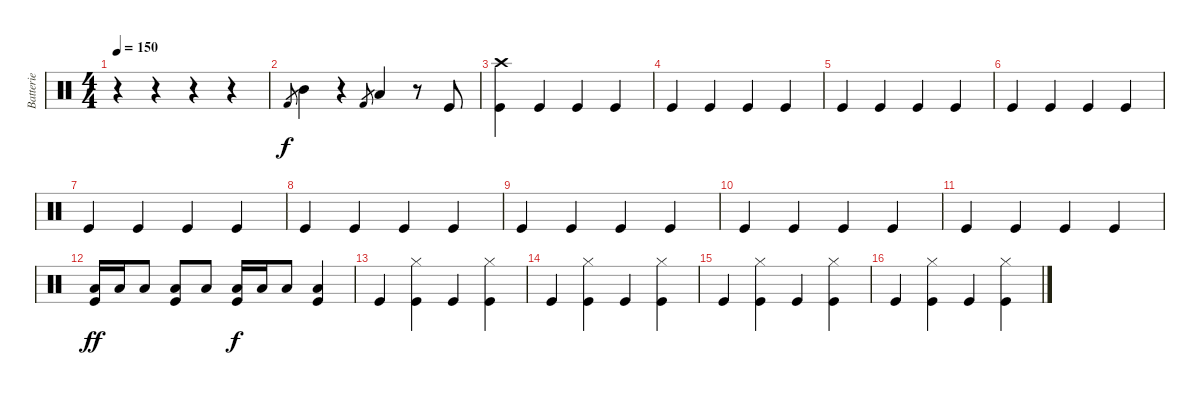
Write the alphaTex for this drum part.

\track ("Batterie" "Batterie") {instrument percussion}
\staff {score}
\articulation defaults
\ts (4 4)
\tempo 150
\clef neutral
\ks c
r.4{dy f} r.4 r.4 r.4 |
"Kick (hit) 2".8{gr} "Mid Tom (hit)".4 r.4 "Kick (hit) 2".8{gr} "Low Tom (hit)".4 r.8 "Kick (hit)".8 |
("Crash high (hit)" "Kick (hit)").4 "Kick (hit)".4 "Kick (hit)".4 "Kick (hit)".4 |
"Kick (hit)".4 "Kick (hit)".4 "Kick (hit)".4 "Kick (hit)".4 |
"Kick (hit)".4 "Kick (hit)".4 "Kick (hit)".4 "Kick (hit)".4 |
"Kick (hit)".4 "Kick (hit)".4 "Kick (hit)".4 "Kick (hit)".4 |
"Kick (hit)".4 "Kick (hit)".4 "Kick (hit)".4 "Kick (hit)".4 |
"Kick (hit)".4 "Kick (hit)".4 "Kick (hit)".4 "Kick (hit)".4 |
"Kick (hit)".4 "Kick (hit)".4 "Kick (hit)".4 "Kick (hit)".4 |
"Kick (hit)".4 "Kick (hit)".4 "Kick (hit)".4 "Kick (hit)".4 |
"Kick (hit)".4 "Kick (hit)".4 "Kick (hit)".4 "Kick (hit)".4 |
("Low Tom (hit)" "Kick (hit)").16{dy ff} "Low Tom (hit)".16 "Low Tom (hit)".8 ("Low Tom (hit)" "Kick (hit)").8 "Low Tom (hit)".8 ("Low Tom (hit)" "Kick (hit)").16{dy f} "Low Tom (hit)".16 "Low Tom (hit)".8 ("Low Tom (hit)" "Kick (hit)").4 |
"Kick (hit)".4 ("Hi-Hat (closed)" "Kick (hit)").4 "Kick (hit)".4 ("Hi-Hat (closed)" "Kick (hit)").4 |
"Kick (hit)".4 ("Hi-Hat (closed)" "Kick (hit)").4 "Kick (hit)".4 ("Hi-Hat (closed)" "Kick (hit)").4 |
"Kick (hit)".4 ("Hi-Hat (closed)" "Kick (hit)").4 "Kick (hit)".4 ("Hi-Hat (closed)" "Kick (hit)").4 |
"Kick (hit)".4 ("Hi-Hat (closed)" "Kick (hit)").4 "Kick (hit)".4 ("Hi-Hat (closed)" "Kick (hit)").4
